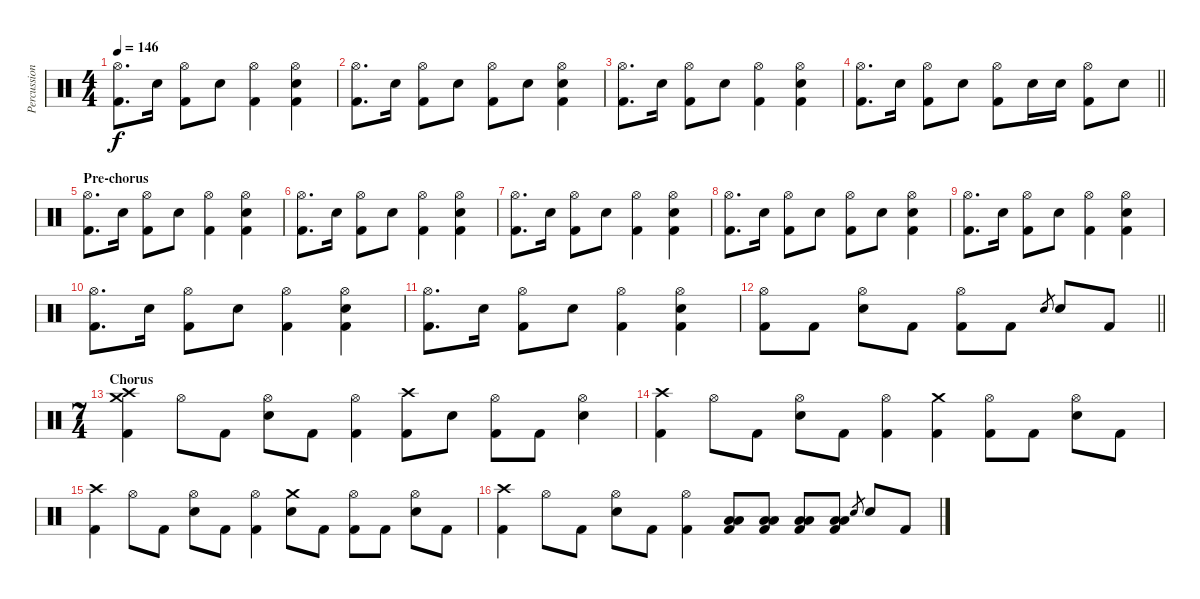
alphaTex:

\track ("Percussion" "Percussion") {instrument percussion}
\staff {score}
\articulation defaults
\ts (4 4)
\tempo 146
\clef neutral
\ks c
("Hi-Hat (open)" "Kick (hit) 2").8{d dy f} "Electric Snare (hit)".16 ("Hi-Hat (open)" "Kick (hit) 2").8 "Electric Snare (hit)".8 ("Hi-Hat (open)" "Kick (hit) 2").4 ("Hi-Hat (open)" "Electric Snare (hit)" "Kick (hit) 2").4 |
("Hi-Hat (open)" "Kick (hit) 2").8{d} "Electric Snare (hit)".16 ("Hi-Hat (open)" "Kick (hit) 2").8 "Electric Snare (hit)".8 ("Hi-Hat (open)" "Kick (hit) 2").8 "Electric Snare (hit)".8 ("Hi-Hat (open)" "Electric Snare (hit)" "Kick (hit) 2").4 |
("Hi-Hat (open)" "Kick (hit) 2").8{d} "Electric Snare (hit)".16 ("Hi-Hat (open)" "Kick (hit) 2").8 "Electric Snare (hit)".8 ("Hi-Hat (open)" "Kick (hit) 2").4 ("Hi-Hat (open)" "Electric Snare (hit)" "Kick (hit) 2").4 |
\barLineRight lightlight
("Hi-Hat (open)" "Kick (hit) 2").8{d} "Electric Snare (hit)".16 ("Hi-Hat (open)" "Kick (hit) 2").8 "Electric Snare (hit)".8 ("Hi-Hat (open)" "Kick (hit) 2").8 "Electric Snare (hit)".16 "Electric Snare (hit)".16 ("Hi-Hat (open)" "Kick (hit) 2").8 "Electric Snare (hit)".8 |
\section ("" "Pre-chorus")
("Hi-Hat (open)" "Kick (hit) 2").8{d} "Electric Snare (hit)".16 ("Hi-Hat (open)" "Kick (hit) 2").8 "Electric Snare (hit)".8 ("Hi-Hat (open)" "Kick (hit) 2").4 ("Hi-Hat (open)" "Electric Snare (hit)" "Kick (hit) 2").4 |
("Hi-Hat (open)" "Kick (hit) 2").8{d} "Electric Snare (hit)".16 ("Hi-Hat (open)" "Kick (hit) 2").8 "Electric Snare (hit)".8 ("Hi-Hat (open)" "Kick (hit) 2").4 ("Hi-Hat (open)" "Electric Snare (hit)" "Kick (hit) 2").4 |
("Hi-Hat (open)" "Kick (hit) 2").8{d} "Electric Snare (hit)".16 ("Hi-Hat (open)" "Kick (hit) 2").8 "Electric Snare (hit)".8 ("Hi-Hat (open)" "Kick (hit) 2").4 ("Hi-Hat (open)" "Electric Snare (hit)" "Kick (hit) 2").4 |
("Hi-Hat (open)" "Kick (hit) 2").8{d} "Electric Snare (hit)".16 ("Hi-Hat (open)" "Kick (hit) 2").8 "Electric Snare (hit)".8 ("Hi-Hat (open)" "Kick (hit) 2").8 "Electric Snare (hit)".8 ("Hi-Hat (open)" "Electric Snare (hit)" "Kick (hit) 2").4 |
("Hi-Hat (open)" "Kick (hit) 2").8{d} "Electric Snare (hit)".16 ("Hi-Hat (open)" "Kick (hit) 2").8 "Electric Snare (hit)".8 ("Hi-Hat (open)" "Kick (hit) 2").4 ("Hi-Hat (open)" "Electric Snare (hit)" "Kick (hit) 2").4 |
("Hi-Hat (open)" "Kick (hit) 2").8{d} "Electric Snare (hit)".16 ("Hi-Hat (open)" "Kick (hit) 2").8 "Electric Snare (hit)".8 ("Hi-Hat (open)" "Kick (hit) 2").4 ("Hi-Hat (open)" "Electric Snare (hit)" "Kick (hit) 2").4 |
("Hi-Hat (open)" "Kick (hit) 2").8{d} "Electric Snare (hit)".16 ("Hi-Hat (open)" "Kick (hit) 2").8 "Electric Snare (hit)".8 ("Hi-Hat (open)" "Kick (hit) 2").4 ("Hi-Hat (open)" "Electric Snare (hit)" "Kick (hit) 2").4 |
\barLineRight lightlight
("Hi-Hat (open)" "Kick (hit) 2").8 "Kick (hit) 2".8 ("Hi-Hat (open)" "Electric Snare (hit)").8 "Kick (hit) 2".8 ("Hi-Hat (open)" "Kick (hit) 2").8 "Kick (hit) 2".8 "Electric Snare (hit)".8{gr} "Electric Snare (hit)".8 "Kick (hit) 2".8 |
\ts (7 4)
\section ("" "Chorus")
("Crash high (hit)" "Crash medium (hit)" "Kick (hit) 2").4 "Hi-Hat (open)".8 "Kick (hit) 2".8 ("Hi-Hat (open)" "Electric Snare (hit)").8 "Kick (hit) 2".8 ("Hi-Hat (open)" "Kick (hit) 2").4 ("Crash high (hit)" "Kick (hit) 2").8 "Electric Snare (hit)".8 ("Hi-Hat (open)" "Kick (hit) 2").8 "Kick (hit) 2".8 ("Hi-Hat (open)" "Electric Snare (hit)").4 |
("Crash high (hit)" "Kick (hit) 2").4 "Hi-Hat (open)".8 "Kick (hit) 2".8 ("Hi-Hat (open)" "Electric Snare (hit)").8 "Kick (hit) 2".8 ("Hi-Hat (open)" "Kick (hit) 2").4 ("Crash medium (hit)" "Kick (hit) 2").4 ("Hi-Hat (open)" "Kick (hit) 2").8 "Kick (hit) 2".8 ("Hi-Hat (open)" "Electric Snare (hit)").8 "Kick (hit) 2".8 |
("Crash high (hit)" "Kick (hit) 2").4 "Hi-Hat (open)".8 "Kick (hit) 2".8 ("Hi-Hat (open)" "Electric Snare (hit)").8 "Kick (hit) 2".8 ("Hi-Hat (open)" "Kick (hit) 2").4 ("Crash medium (hit)" "Electric Snare (hit)").8 "Kick (hit) 2".8 ("Hi-Hat (open)" "Kick (hit) 2").8 "Kick (hit) 2".8 ("Hi-Hat (open)" "Electric Snare (hit)").8 "Kick (hit) 2".8 |
("Crash high (hit)" "Kick (hit) 2").4 "Hi-Hat (open)".8 "Kick (hit) 2".8 ("Hi-Hat (open)" "Electric Snare (hit)").8 "Kick (hit) 2".8 ("Hi-Hat (open)" "Kick (hit) 2").4 ("Low Tom (hit)" "Low Floor Tom (hit)" "Kick (hit) 2").8 ("Low Tom (hit)" "Low Floor Tom (hit)" "Kick (hit) 2").8 ("Low Tom (hit)" "Low Floor Tom (hit)" "Kick (hit) 2").8 ("Low Tom (hit)" "Low Floor Tom (hit)" "Kick (hit) 2").8 "Electric Snare (hit)".8{gr} "Electric Snare (hit)".8 "Kick (hit) 2".8
